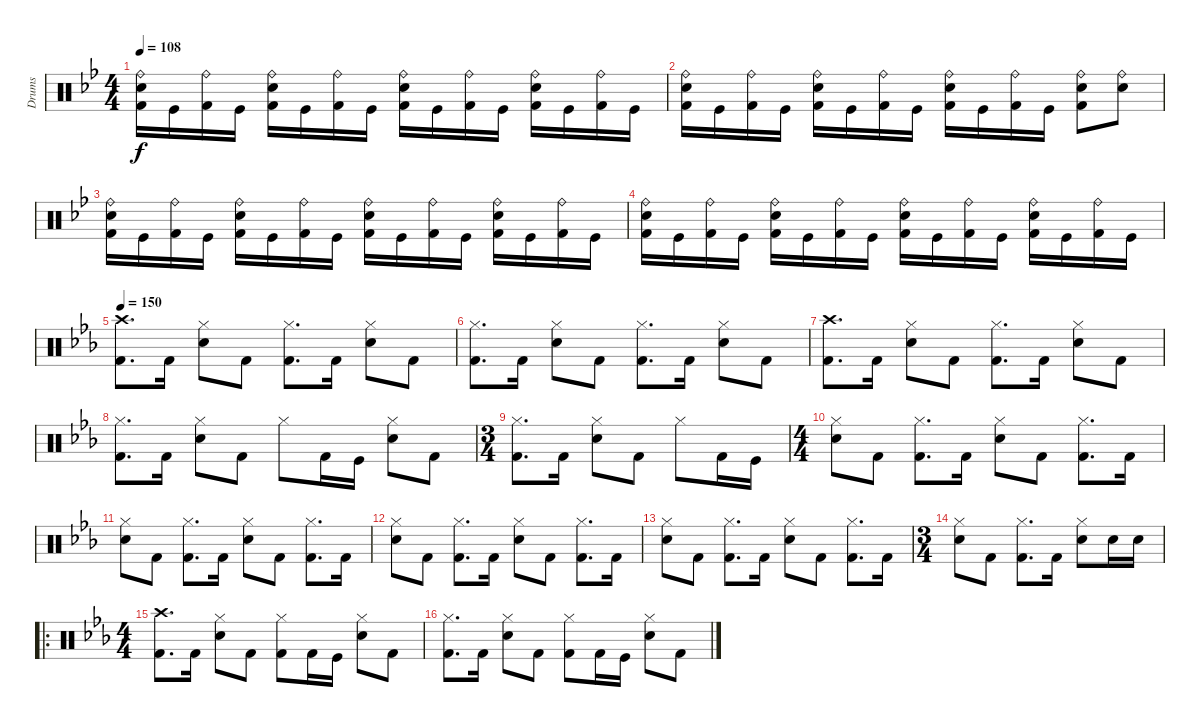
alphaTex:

\track ("Drums" "Drums") {instrument percussion}
\staff {score}
\articulation defaults
\ts (4 4)
\tempo 108
\clef neutral
\ks bb
("Ride (bell)" "Electric Snare (hit)" "Kick (hit) 2").16{dy f} "Kick (hit)".16 ("Ride (bell)" "Kick (hit) 2").16 "Kick (hit)".16 ("Ride (bell)" "Electric Snare (hit)" "Kick (hit) 2").16 "Kick (hit)".16 ("Ride (bell)" "Kick (hit) 2").16 "Kick (hit)".16 ("Ride (bell)" "Electric Snare (hit)" "Kick (hit) 2").16 "Kick (hit)".16 ("Ride (bell)" "Kick (hit) 2").16 "Kick (hit)".16 ("Ride (bell)" "Electric Snare (hit)" "Kick (hit) 2").16 "Kick (hit)".16 ("Ride (bell)" "Kick (hit) 2").16 "Kick (hit)".16 |
("Ride (bell)" "Electric Snare (hit)" "Kick (hit) 2").16 "Kick (hit)".16 ("Ride (bell)" "Kick (hit) 2").16 "Kick (hit)".16 ("Ride (bell)" "Electric Snare (hit)" "Kick (hit) 2").16 "Kick (hit)".16 ("Ride (bell)" "Kick (hit) 2").16 "Kick (hit)".16 ("Ride (bell)" "Electric Snare (hit)" "Kick (hit) 2").16 "Kick (hit)".16 ("Ride (bell)" "Kick (hit) 2").16 "Kick (hit)".16 ("Ride (bell)" "Electric Snare (hit)" "Kick (hit) 2").8 ("Ride (bell)" "Electric Snare (hit)").8 |
("Ride (bell)" "Electric Snare (hit)" "Kick (hit) 2").16 "Kick (hit)".16 ("Ride (bell)" "Kick (hit) 2").16 "Kick (hit)".16 ("Ride (bell)" "Electric Snare (hit)" "Kick (hit) 2").16 "Kick (hit)".16 ("Ride (bell)" "Kick (hit) 2").16 "Kick (hit)".16 ("Ride (bell)" "Electric Snare (hit)" "Kick (hit) 2").16 "Kick (hit)".16 ("Ride (bell)" "Kick (hit) 2").16 "Kick (hit)".16 ("Ride (bell)" "Electric Snare (hit)" "Kick (hit) 2").16 "Kick (hit)".16 ("Ride (bell)" "Kick (hit) 2").16 "Kick (hit)".16 |
("Ride (bell)" "Electric Snare (hit)" "Kick (hit) 2").16 "Kick (hit)".16 ("Ride (bell)" "Kick (hit) 2").16 "Kick (hit)".16 ("Ride (bell)" "Electric Snare (hit)" "Kick (hit) 2").16 "Kick (hit)".16 ("Ride (bell)" "Kick (hit) 2").16 "Kick (hit)".16 ("Ride (bell)" "Electric Snare (hit)" "Kick (hit) 2").16 "Kick (hit)".16 ("Ride (bell)" "Kick (hit) 2").16 "Kick (hit)".16 ("Ride (bell)" "Electric Snare (hit)" "Kick (hit) 2").16 "Kick (hit)".16 ("Ride (bell)" "Kick (hit) 2").16 "Kick (hit)".16 |
\tempo 150
\ks eb
("Crash high (hit)" "Kick (hit) 2").8{d} "Kick (hit) 2".16 ("Hi-Hat (closed)" "Electric Snare (hit)").8 "Kick (hit) 2".8 ("Hi-Hat (closed)" "Kick (hit) 2").8{d} "Kick (hit) 2".16 ("Hi-Hat (closed)" "Electric Snare (hit)").8 "Kick (hit) 2".8 |
("Hi-Hat (closed)" "Kick (hit) 2").8{d} "Kick (hit) 2".16 ("Hi-Hat (closed)" "Electric Snare (hit)").8 "Kick (hit) 2".8 ("Hi-Hat (closed)" "Kick (hit) 2").8{d} "Kick (hit) 2".16 ("Hi-Hat (closed)" "Electric Snare (hit)").8 "Kick (hit) 2".8 |
("Crash high (hit)" "Kick (hit) 2").8{d} "Kick (hit) 2".16 ("Hi-Hat (closed)" "Electric Snare (hit)").8 "Kick (hit) 2".8 ("Hi-Hat (closed)" "Kick (hit) 2").8{d} "Kick (hit) 2".16 ("Hi-Hat (closed)" "Electric Snare (hit)").8 "Kick (hit) 2".8 |
("Hi-Hat (closed)" "Kick (hit) 2").8{d} "Kick (hit) 2".16 ("Hi-Hat (closed)" "Electric Snare (hit)").8 "Kick (hit) 2".8 "Hi-Hat (closed)".8 "Kick (hit) 2".16 "Kick (hit)".16 ("Hi-Hat (closed)" "Electric Snare (hit)").8 "Kick (hit) 2".8 |
\ts (3 4)
("Hi-Hat (closed)" "Kick (hit) 2").8{d} "Kick (hit) 2".16 ("Hi-Hat (closed)" "Electric Snare (hit)").8 "Kick (hit) 2".8 "Hi-Hat (closed)".8 "Kick (hit) 2".16 "Kick (hit)".16 |
\ts (4 4)
("Hi-Hat (closed)" "Electric Snare (hit)").8 "Kick (hit) 2".8 ("Hi-Hat (closed)" "Kick (hit) 2").8{d} "Kick (hit) 2".16 ("Hi-Hat (closed)" "Electric Snare (hit)").8 "Kick (hit) 2".8 ("Hi-Hat (closed)" "Kick (hit) 2").8{d} "Kick (hit) 2".16 |
("Hi-Hat (closed)" "Electric Snare (hit)").8 "Kick (hit) 2".8 ("Hi-Hat (closed)" "Kick (hit) 2").8{d} "Kick (hit) 2".16 ("Hi-Hat (closed)" "Electric Snare (hit)").8 "Kick (hit) 2".8 ("Hi-Hat (closed)" "Kick (hit) 2").8{d} "Kick (hit) 2".16 |
("Hi-Hat (closed)" "Electric Snare (hit)").8 "Kick (hit) 2".8 ("Hi-Hat (closed)" "Kick (hit) 2").8{d} "Kick (hit) 2".16 ("Hi-Hat (closed)" "Electric Snare (hit)").8 "Kick (hit) 2".8 ("Hi-Hat (closed)" "Kick (hit) 2").8{d} "Kick (hit) 2".16 |
("Hi-Hat (closed)" "Electric Snare (hit)").8 "Kick (hit) 2".8 ("Hi-Hat (closed)" "Kick (hit) 2").8{d} "Kick (hit) 2".16 ("Hi-Hat (closed)" "Electric Snare (hit)").8 "Kick (hit) 2".8 ("Hi-Hat (closed)" "Kick (hit) 2").8{d} "Kick (hit) 2".16 |
\ts (3 4)
("Hi-Hat (closed)" "Electric Snare (hit)").8 "Kick (hit) 2".8 ("Hi-Hat (closed)" "Kick (hit) 2").8{d} "Kick (hit) 2".16 ("Hi-Hat (closed)" "Electric Snare (hit)").8 "Electric Snare (hit)".16 "Electric Snare (hit)".16 |
\ro
\ts (4 4)
("Crash high (hit)" "Kick (hit) 2").8{d} "Kick (hit) 2".16 ("Hi-Hat (closed)" "Electric Snare (hit)").8 "Kick (hit) 2".8 ("Hi-Hat (closed)" "Kick (hit) 2").8 "Kick (hit) 2".16 "Kick (hit)".16 ("Hi-Hat (closed)" "Electric Snare (hit)").8 "Kick (hit) 2".8 |
("Hi-Hat (closed)" "Kick (hit) 2").8{d} "Kick (hit) 2".16 ("Hi-Hat (closed)" "Electric Snare (hit)").8 "Kick (hit) 2".8 ("Hi-Hat (closed)" "Kick (hit) 2").8 "Kick (hit) 2".16 "Kick (hit)".16 ("Hi-Hat (closed)" "Electric Snare (hit)").8 "Kick (hit) 2".8
